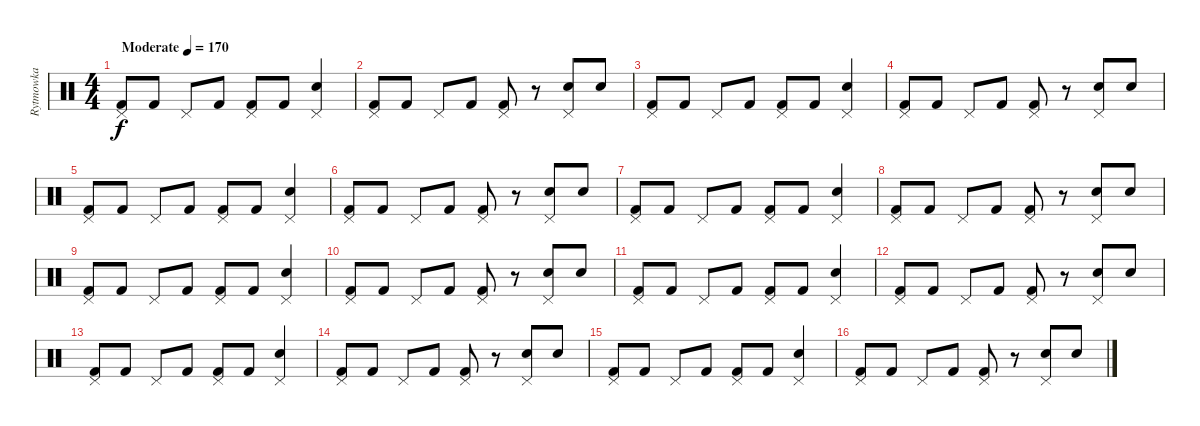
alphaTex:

\track ("Rytmowka" "Rytmowka") {instrument percussion}
\staff {score}
\articulation defaults
\ts (4 4)
\tempo (170 "Moderate")
\clef neutral
\ks c
("Pedal Hi-Hat (hit)" "Kick (hit) 2").8{dy f} "Kick (hit) 2".8 "Pedal Hi-Hat (hit)".8 "Kick (hit) 2".8 ("Pedal Hi-Hat (hit)" "Kick (hit) 2").8 "Kick (hit) 2".8 ("Pedal Hi-Hat (hit)" "Snare (hit) 2").4 |
("Pedal Hi-Hat (hit)" "Kick (hit) 2").8 "Kick (hit) 2".8 "Pedal Hi-Hat (hit)".8 "Kick (hit) 2".8 ("Pedal Hi-Hat (hit)" "Kick (hit) 2").8 r.8 ("Pedal Hi-Hat (hit)" "Snare (hit) 2").8 "Snare (hit) 2".8 |
("Pedal Hi-Hat (hit)" "Kick (hit) 2").8 "Kick (hit) 2".8 "Pedal Hi-Hat (hit)".8 "Kick (hit) 2".8 ("Pedal Hi-Hat (hit)" "Kick (hit) 2").8 "Kick (hit) 2".8 ("Pedal Hi-Hat (hit)" "Snare (hit) 2").4 |
("Pedal Hi-Hat (hit)" "Kick (hit) 2").8 "Kick (hit) 2".8 "Pedal Hi-Hat (hit)".8 "Kick (hit) 2".8 ("Pedal Hi-Hat (hit)" "Kick (hit) 2").8 r.8 ("Pedal Hi-Hat (hit)" "Snare (hit) 2").8 "Snare (hit) 2".8 |
("Pedal Hi-Hat (hit)" "Kick (hit) 2").8 "Kick (hit) 2".8 "Pedal Hi-Hat (hit)".8 "Kick (hit) 2".8 ("Pedal Hi-Hat (hit)" "Kick (hit) 2").8 "Kick (hit) 2".8 ("Pedal Hi-Hat (hit)" "Snare (hit) 2").4 |
("Pedal Hi-Hat (hit)" "Kick (hit) 2").8 "Kick (hit) 2".8 "Pedal Hi-Hat (hit)".8 "Kick (hit) 2".8 ("Pedal Hi-Hat (hit)" "Kick (hit) 2").8 r.8 ("Pedal Hi-Hat (hit)" "Snare (hit) 2").8 "Snare (hit) 2".8 |
("Pedal Hi-Hat (hit)" "Kick (hit) 2").8 "Kick (hit) 2".8 "Pedal Hi-Hat (hit)".8 "Kick (hit) 2".8 ("Pedal Hi-Hat (hit)" "Kick (hit) 2").8 "Kick (hit) 2".8 ("Pedal Hi-Hat (hit)" "Snare (hit) 2").4 |
("Pedal Hi-Hat (hit)" "Kick (hit) 2").8 "Kick (hit) 2".8 "Pedal Hi-Hat (hit)".8 "Kick (hit) 2".8 ("Pedal Hi-Hat (hit)" "Kick (hit) 2").8 r.8 ("Pedal Hi-Hat (hit)" "Snare (hit) 2").8 "Snare (hit) 2".8 |
("Pedal Hi-Hat (hit)" "Kick (hit) 2").8 "Kick (hit) 2".8 "Pedal Hi-Hat (hit)".8 "Kick (hit) 2".8 ("Pedal Hi-Hat (hit)" "Kick (hit) 2").8 "Kick (hit) 2".8 ("Pedal Hi-Hat (hit)" "Snare (hit) 2").4 |
("Pedal Hi-Hat (hit)" "Kick (hit) 2").8 "Kick (hit) 2".8 "Pedal Hi-Hat (hit)".8 "Kick (hit) 2".8 ("Pedal Hi-Hat (hit)" "Kick (hit) 2").8 r.8 ("Pedal Hi-Hat (hit)" "Snare (hit) 2").8 "Snare (hit) 2".8 |
("Pedal Hi-Hat (hit)" "Kick (hit) 2").8 "Kick (hit) 2".8 "Pedal Hi-Hat (hit)".8 "Kick (hit) 2".8 ("Pedal Hi-Hat (hit)" "Kick (hit) 2").8 "Kick (hit) 2".8 ("Pedal Hi-Hat (hit)" "Snare (hit) 2").4 |
("Pedal Hi-Hat (hit)" "Kick (hit) 2").8 "Kick (hit) 2".8 "Pedal Hi-Hat (hit)".8 "Kick (hit) 2".8 ("Pedal Hi-Hat (hit)" "Kick (hit) 2").8 r.8 ("Pedal Hi-Hat (hit)" "Snare (hit) 2").8 "Snare (hit) 2".8 |
("Pedal Hi-Hat (hit)" "Kick (hit) 2").8 "Kick (hit) 2".8 "Pedal Hi-Hat (hit)".8 "Kick (hit) 2".8 ("Pedal Hi-Hat (hit)" "Kick (hit) 2").8 "Kick (hit) 2".8 ("Pedal Hi-Hat (hit)" "Snare (hit) 2").4 |
("Pedal Hi-Hat (hit)" "Kick (hit) 2").8 "Kick (hit) 2".8 "Pedal Hi-Hat (hit)".8 "Kick (hit) 2".8 ("Pedal Hi-Hat (hit)" "Kick (hit) 2").8 r.8 ("Pedal Hi-Hat (hit)" "Snare (hit) 2").8 "Snare (hit) 2".8 |
("Pedal Hi-Hat (hit)" "Kick (hit) 2").8 "Kick (hit) 2".8 "Pedal Hi-Hat (hit)".8 "Kick (hit) 2".8 ("Pedal Hi-Hat (hit)" "Kick (hit) 2").8 "Kick (hit) 2".8 ("Pedal Hi-Hat (hit)" "Snare (hit) 2").4 |
("Pedal Hi-Hat (hit)" "Kick (hit) 2").8 "Kick (hit) 2".8 "Pedal Hi-Hat (hit)".8 "Kick (hit) 2".8 ("Pedal Hi-Hat (hit)" "Kick (hit) 2").8 r.8 ("Pedal Hi-Hat (hit)" "Snare (hit) 2").8 "Snare (hit) 2".8
